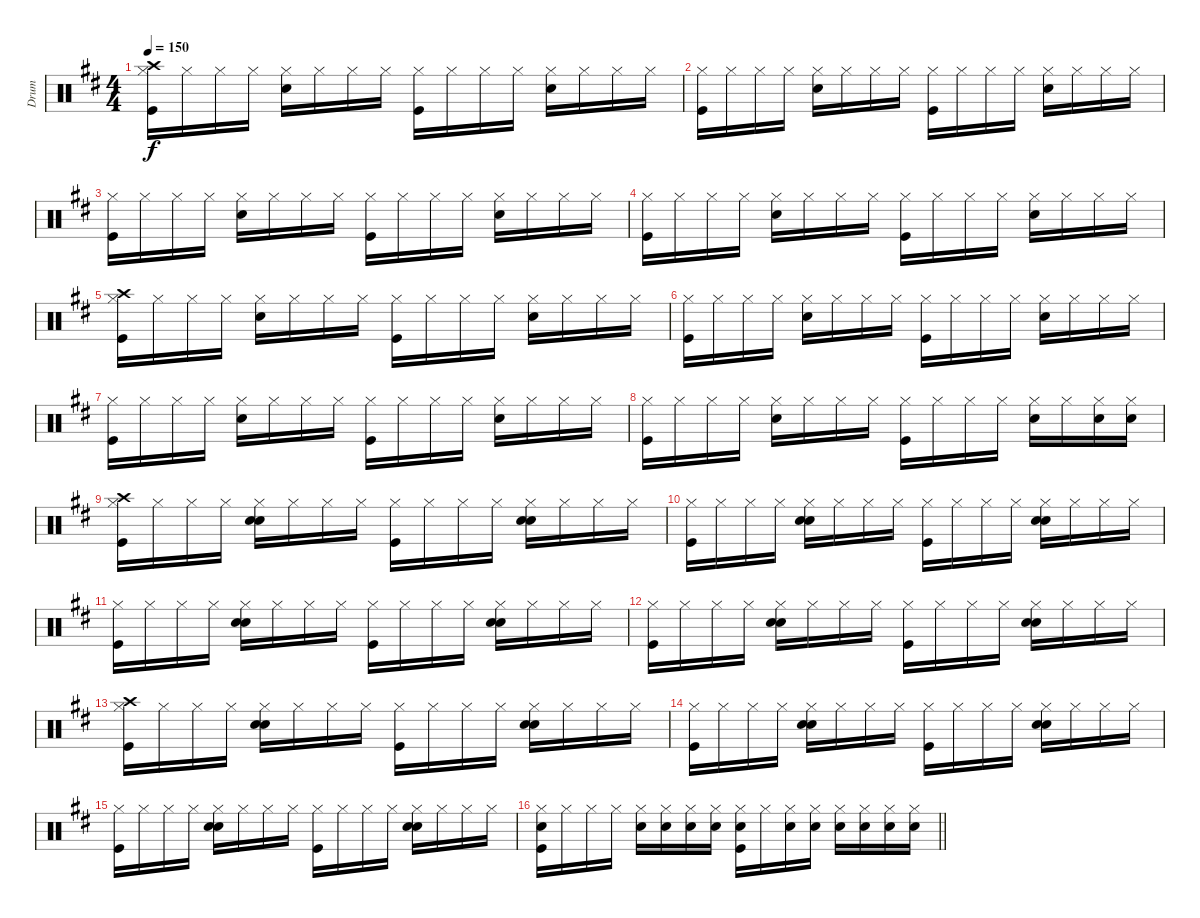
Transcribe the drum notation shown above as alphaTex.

\track ("Drum" "Drum") {instrument percussion}
\staff {score}
\articulation defaults
\ts (4 4)
\tempo 150
\clef neutral
\ks d
("Crash high (hit)" "Hi-Hat (closed)" "Kick (hit)").16{dy f} "Hi-Hat (closed)".16 "Hi-Hat (closed)".16 "Hi-Hat (closed)".16 ("Hi-Hat (closed)" "Snare (hit) 2").16 "Hi-Hat (closed)".16 "Hi-Hat (closed)".16 "Hi-Hat (closed)".16 ("Hi-Hat (closed)" "Kick (hit)").16 "Hi-Hat (closed)".16 "Hi-Hat (closed)".16 "Hi-Hat (closed)".16 ("Hi-Hat (closed)" "Snare (hit) 2").16 "Hi-Hat (closed)".16 "Hi-Hat (closed)".16 "Hi-Hat (closed)".16 |
("Hi-Hat (closed)" "Kick (hit)").16 "Hi-Hat (closed)".16 "Hi-Hat (closed)".16 "Hi-Hat (closed)".16 ("Hi-Hat (closed)" "Snare (hit) 2").16 "Hi-Hat (closed)".16 "Hi-Hat (closed)".16 "Hi-Hat (closed)".16 ("Hi-Hat (closed)" "Kick (hit)").16 "Hi-Hat (closed)".16 "Hi-Hat (closed)".16 "Hi-Hat (closed)".16 ("Hi-Hat (closed)" "Snare (hit) 2").16 "Hi-Hat (closed)".16 "Hi-Hat (closed)".16 "Hi-Hat (closed)".16 |
("Hi-Hat (closed)" "Kick (hit)").16 "Hi-Hat (closed)".16 "Hi-Hat (closed)".16 "Hi-Hat (closed)".16 ("Hi-Hat (closed)" "Snare (hit) 2").16 "Hi-Hat (closed)".16 "Hi-Hat (closed)".16 "Hi-Hat (closed)".16 ("Hi-Hat (closed)" "Kick (hit)").16 "Hi-Hat (closed)".16 "Hi-Hat (closed)".16 "Hi-Hat (closed)".16 ("Hi-Hat (closed)" "Snare (hit) 2").16 "Hi-Hat (closed)".16 "Hi-Hat (closed)".16 "Hi-Hat (closed)".16 |
("Hi-Hat (closed)" "Kick (hit)").16 "Hi-Hat (closed)".16 "Hi-Hat (closed)".16 "Hi-Hat (closed)".16 ("Hi-Hat (closed)" "Snare (hit) 2").16 "Hi-Hat (closed)".16 "Hi-Hat (closed)".16 "Hi-Hat (closed)".16 ("Hi-Hat (closed)" "Kick (hit)").16 "Hi-Hat (closed)".16 "Hi-Hat (closed)".16 "Hi-Hat (closed)".16 ("Hi-Hat (closed)" "Snare (hit) 2").16 "Hi-Hat (closed)".16 "Hi-Hat (closed)".16 "Hi-Hat (closed)".16 |
("Crash high (hit)" "Hi-Hat (closed)" "Kick (hit)").16 "Hi-Hat (closed)".16 "Hi-Hat (closed)".16 "Hi-Hat (closed)".16 ("Hi-Hat (closed)" "Snare (hit) 2").16 "Hi-Hat (closed)".16 "Hi-Hat (closed)".16 "Hi-Hat (closed)".16 ("Hi-Hat (closed)" "Kick (hit)").16 "Hi-Hat (closed)".16 "Hi-Hat (closed)".16 "Hi-Hat (closed)".16 ("Hi-Hat (closed)" "Snare (hit) 2").16 "Hi-Hat (closed)".16 "Hi-Hat (closed)".16 "Hi-Hat (closed)".16 |
("Hi-Hat (closed)" "Kick (hit)").16 "Hi-Hat (closed)".16 "Hi-Hat (closed)".16 "Hi-Hat (closed)".16 ("Hi-Hat (closed)" "Snare (hit) 2").16 "Hi-Hat (closed)".16 "Hi-Hat (closed)".16 "Hi-Hat (closed)".16 ("Hi-Hat (closed)" "Kick (hit)").16 "Hi-Hat (closed)".16 "Hi-Hat (closed)".16 "Hi-Hat (closed)".16 ("Hi-Hat (closed)" "Snare (hit) 2").16 "Hi-Hat (closed)".16 "Hi-Hat (closed)".16 "Hi-Hat (closed)".16 |
("Hi-Hat (closed)" "Kick (hit)").16 "Hi-Hat (closed)".16 "Hi-Hat (closed)".16 "Hi-Hat (closed)".16 ("Hi-Hat (closed)" "Snare (hit) 2").16 "Hi-Hat (closed)".16 "Hi-Hat (closed)".16 "Hi-Hat (closed)".16 ("Hi-Hat (closed)" "Kick (hit)").16 "Hi-Hat (closed)".16 "Hi-Hat (closed)".16 "Hi-Hat (closed)".16 ("Hi-Hat (closed)" "Snare (hit) 2").16 "Hi-Hat (closed)".16 "Hi-Hat (closed)".16 "Hi-Hat (closed)".16 |
("Hi-Hat (closed)" "Kick (hit)").16 "Hi-Hat (closed)".16 "Hi-Hat (closed)".16 "Hi-Hat (closed)".16 ("Hi-Hat (closed)" "Snare (hit) 2").16 "Hi-Hat (closed)".16 "Hi-Hat (closed)".16 "Hi-Hat (closed)".16 ("Hi-Hat (closed)" "Kick (hit)").16 "Hi-Hat (closed)".16 "Hi-Hat (closed)".16 "Hi-Hat (closed)".16 ("Hi-Hat (closed)" "Snare (hit) 2").16 "Hi-Hat (closed)".16 ("Snare (hit) 2" "Hi-Hat (closed)").16 ("Snare (hit) 2" "Hi-Hat (closed)").16 |
("Crash high (hit)" "Hi-Hat (closed)" "Kick (hit)").16 "Hi-Hat (closed)".16 "Hi-Hat (closed)".16 "Hi-Hat (closed)".16 ("Hi-Hat (closed)" "Snare (hit) 2" "Hand Clap (hit)").16 "Hi-Hat (closed)".16 "Hi-Hat (closed)".16 "Hi-Hat (closed)".16 ("Hi-Hat (closed)" "Kick (hit)").16 "Hi-Hat (closed)".16 "Hi-Hat (closed)".16 "Hi-Hat (closed)".16 ("Hi-Hat (closed)" "Snare (hit) 2" "Hand Clap (hit)").16 "Hi-Hat (closed)".16 "Hi-Hat (closed)".16 "Hi-Hat (closed)".16 |
("Hi-Hat (closed)" "Kick (hit)").16 "Hi-Hat (closed)".16 "Hi-Hat (closed)".16 "Hi-Hat (closed)".16 ("Hi-Hat (closed)" "Snare (hit) 2" "Hand Clap (hit)").16 "Hi-Hat (closed)".16 "Hi-Hat (closed)".16 "Hi-Hat (closed)".16 ("Hi-Hat (closed)" "Kick (hit)").16 "Hi-Hat (closed)".16 "Hi-Hat (closed)".16 "Hi-Hat (closed)".16 ("Hi-Hat (closed)" "Snare (hit) 2" "Hand Clap (hit)").16 "Hi-Hat (closed)".16 "Hi-Hat (closed)".16 "Hi-Hat (closed)".16 |
("Hi-Hat (closed)" "Kick (hit)").16 "Hi-Hat (closed)".16 "Hi-Hat (closed)".16 "Hi-Hat (closed)".16 ("Hi-Hat (closed)" "Snare (hit) 2" "Hand Clap (hit)").16 "Hi-Hat (closed)".16 "Hi-Hat (closed)".16 "Hi-Hat (closed)".16 ("Hi-Hat (closed)" "Kick (hit)").16 "Hi-Hat (closed)".16 "Hi-Hat (closed)".16 "Hi-Hat (closed)".16 ("Hi-Hat (closed)" "Snare (hit) 2" "Hand Clap (hit)").16 "Hi-Hat (closed)".16 "Hi-Hat (closed)".16 "Hi-Hat (closed)".16 |
("Hi-Hat (closed)" "Kick (hit)").16 "Hi-Hat (closed)".16 "Hi-Hat (closed)".16 "Hi-Hat (closed)".16 ("Hi-Hat (closed)" "Snare (hit) 2" "Hand Clap (hit)").16 "Hi-Hat (closed)".16 "Hi-Hat (closed)".16 "Hi-Hat (closed)".16 ("Hi-Hat (closed)" "Kick (hit)").16 "Hi-Hat (closed)".16 "Hi-Hat (closed)".16 "Hi-Hat (closed)".16 ("Hi-Hat (closed)" "Snare (hit) 2" "Hand Clap (hit)").16 "Hi-Hat (closed)".16 "Hi-Hat (closed)".16 "Hi-Hat (closed)".16 |
("Crash high (hit)" "Hi-Hat (closed)" "Kick (hit)").16 "Hi-Hat (closed)".16 "Hi-Hat (closed)".16 "Hi-Hat (closed)".16 ("Hi-Hat (closed)" "Snare (hit) 2" "Hand Clap (hit)").16 "Hi-Hat (closed)".16 "Hi-Hat (closed)".16 "Hi-Hat (closed)".16 ("Hi-Hat (closed)" "Kick (hit)").16 "Hi-Hat (closed)".16 "Hi-Hat (closed)".16 "Hi-Hat (closed)".16 ("Hi-Hat (closed)" "Snare (hit) 2" "Hand Clap (hit)").16 "Hi-Hat (closed)".16 "Hi-Hat (closed)".16 "Hi-Hat (closed)".16 |
("Hi-Hat (closed)" "Kick (hit)").16 "Hi-Hat (closed)".16 "Hi-Hat (closed)".16 "Hi-Hat (closed)".16 ("Hi-Hat (closed)" "Snare (hit) 2" "Hand Clap (hit)").16 "Hi-Hat (closed)".16 "Hi-Hat (closed)".16 "Hi-Hat (closed)".16 ("Hi-Hat (closed)" "Kick (hit)").16 "Hi-Hat (closed)".16 "Hi-Hat (closed)".16 "Hi-Hat (closed)".16 ("Hi-Hat (closed)" "Snare (hit) 2" "Hand Clap (hit)").16 "Hi-Hat (closed)".16 "Hi-Hat (closed)".16 "Hi-Hat (closed)".16 |
("Hi-Hat (closed)" "Kick (hit)").16 "Hi-Hat (closed)".16 "Hi-Hat (closed)".16 "Hi-Hat (closed)".16 ("Hi-Hat (closed)" "Snare (hit) 2" "Hand Clap (hit)").16 "Hi-Hat (closed)".16 "Hi-Hat (closed)".16 "Hi-Hat (closed)".16 ("Hi-Hat (closed)" "Kick (hit)").16 "Hi-Hat (closed)".16 "Hi-Hat (closed)".16 "Hi-Hat (closed)".16 ("Hi-Hat (closed)" "Snare (hit) 2" "Hand Clap (hit)").16 "Hi-Hat (closed)".16 "Hi-Hat (closed)".16 "Hi-Hat (closed)".16 |
\barLineRight lightlight
("Hi-Hat (closed)" "Kick (hit)" "Snare (hit) 2").16 "Hi-Hat (closed)".16 "Hi-Hat (closed)".16 "Hi-Hat (closed)".16 ("Hi-Hat (closed)" "Snare (hit) 2").16 ("Hi-Hat (closed)" "Snare (hit) 2").16 ("Hi-Hat (closed)" "Snare (hit) 2").16 ("Hi-Hat (closed)" "Snare (hit) 2").16 ("Hi-Hat (closed)" "Kick (hit)" "Snare (hit) 2").16 "Hi-Hat (closed)".16 ("Hi-Hat (closed)" "Snare (hit) 2").16 ("Hi-Hat (closed)" "Snare (hit) 2").16 ("Hi-Hat (closed)" "Snare (hit) 2").16 ("Hi-Hat (closed)" "Snare (hit) 2").16 ("Hi-Hat (closed)" "Snare (hit) 2").16 ("Hi-Hat (closed)" "Snare (hit) 2").16
